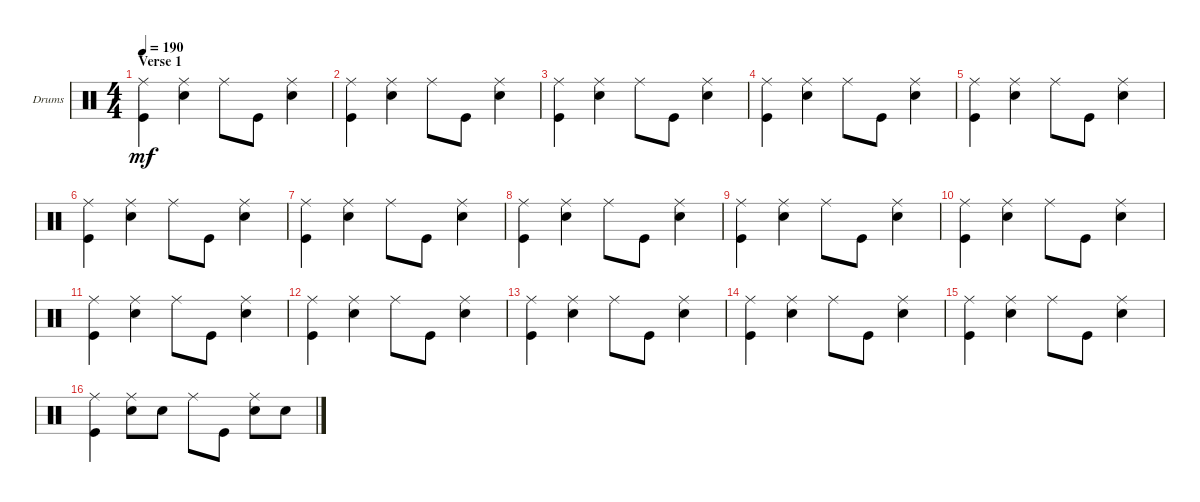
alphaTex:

\defaultSystemsLayout 4
\bracketExtendMode groupsimilarinstruments
\firstSystemTrackNameOrientation horizontal
\otherSystemsTrackNameOrientation horizontal
\track ("Drumkit" "Drums") {instrument percussion}
\staff {score}
\articulation defaults
\ts (4 4)
\section ("" "Verse 1")
\tempo 190
\clef neutral
\ks c
("Kick (hit)" "Ride (middle)").4{dy mf} ("Snare (hit) 2" "Ride (middle)").4 "Ride (middle)".8 "Kick (hit)".8 ("Ride (middle)" "Snare (hit) 2").4 |
("Kick (hit)" "Ride (middle)").4 ("Snare (hit) 2" "Ride (middle)").4 "Ride (middle)".8 "Kick (hit)".8 ("Ride (middle)" "Snare (hit) 2").4 |
("Kick (hit)" "Ride (middle)").4 ("Snare (hit) 2" "Ride (middle)").4 "Ride (middle)".8 "Kick (hit)".8 ("Ride (middle)" "Snare (hit) 2").4 |
("Kick (hit)" "Ride (middle)").4 ("Snare (hit) 2" "Ride (middle)").4 "Ride (middle)".8 "Kick (hit)".8 ("Ride (middle)" "Snare (hit) 2").4 |
("Kick (hit)" "Ride (middle)").4 ("Snare (hit) 2" "Ride (middle)").4 "Ride (middle)".8 "Kick (hit)".8 ("Ride (middle)" "Snare (hit) 2").4 |
("Kick (hit)" "Ride (middle)").4 ("Snare (hit) 2" "Ride (middle)").4 "Ride (middle)".8 "Kick (hit)".8 ("Ride (middle)" "Snare (hit) 2").4 |
("Kick (hit)" "Ride (middle)").4 ("Snare (hit) 2" "Ride (middle)").4 "Ride (middle)".8 "Kick (hit)".8 ("Ride (middle)" "Snare (hit) 2").4 |
("Kick (hit)" "Ride (middle)").4 ("Snare (hit) 2" "Ride (middle)").4 "Ride (middle)".8 "Kick (hit)".8 ("Ride (middle)" "Snare (hit) 2").4 |
("Kick (hit)" "Ride (middle)").4 ("Snare (hit) 2" "Ride (middle)").4 "Ride (middle)".8 "Kick (hit)".8 ("Ride (middle)" "Snare (hit) 2").4 |
("Kick (hit)" "Ride (middle)").4 ("Snare (hit) 2" "Ride (middle)").4 "Ride (middle)".8 "Kick (hit)".8 ("Ride (middle)" "Snare (hit) 2").4 |
("Kick (hit)" "Ride (middle)").4 ("Snare (hit) 2" "Ride (middle)").4 "Ride (middle)".8 "Kick (hit)".8 ("Ride (middle)" "Snare (hit) 2").4 |
("Kick (hit)" "Ride (middle)").4 ("Snare (hit) 2" "Ride (middle)").4 "Ride (middle)".8 "Kick (hit)".8 ("Ride (middle)" "Snare (hit) 2").4 |
("Kick (hit)" "Ride (middle)").4 ("Snare (hit) 2" "Ride (middle)").4 "Ride (middle)".8 "Kick (hit)".8 ("Ride (middle)" "Snare (hit) 2").4 |
("Kick (hit)" "Ride (middle)").4 ("Snare (hit) 2" "Ride (middle)").4 "Ride (middle)".8 "Kick (hit)".8 ("Ride (middle)" "Snare (hit) 2").4 |
("Kick (hit)" "Ride (middle)").4 ("Snare (hit) 2" "Ride (middle)").4 "Ride (middle)".8 "Kick (hit)".8 ("Ride (middle)" "Snare (hit) 2").4 |
("Kick (hit)" "Ride (middle)").4 ("Snare (hit) 2" "Ride (middle)").8 "Snare (hit) 2".8 "Ride (middle)".8 "Kick (hit)".8 ("Ride (middle)" "Snare (hit) 2").8 "Snare (hit) 2".8
